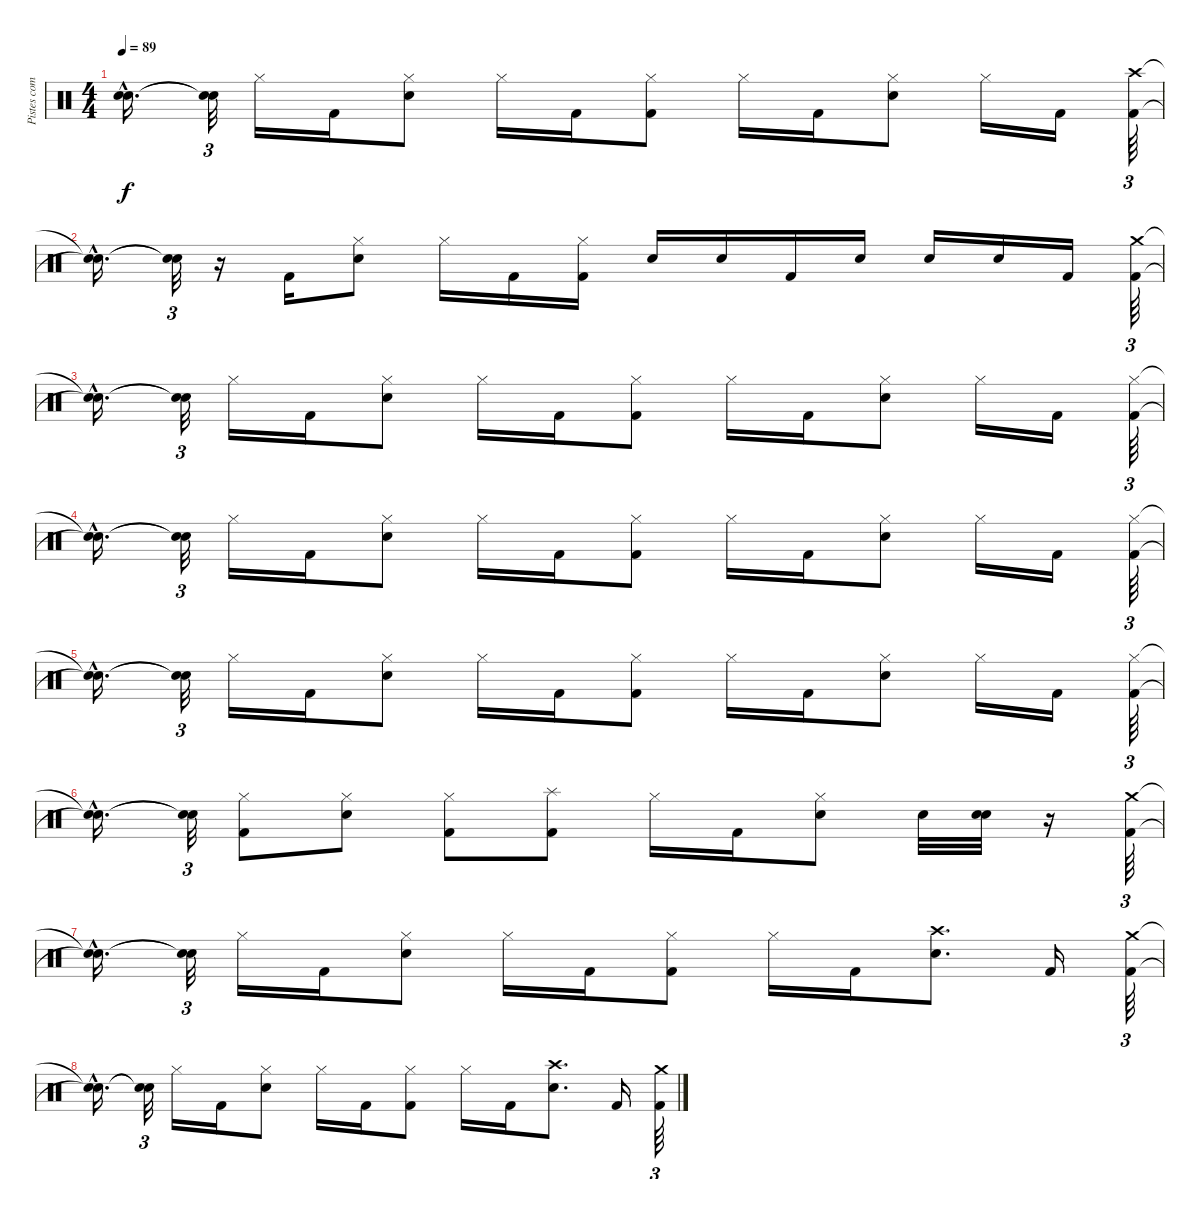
\track ("Pistes combinées" "Pistes com") {instrument percussion}
\staff {score}
\articulation defaults
\ts (4 4)
\tempo 89
\clef neutral
\ks c
("Snare (hit)"{hac t} "Snare (hit)"{hac t}).16{d dy f} ("Snare (hit)"{t} "Snare (hit)"{t}).32{tu (3 2)} "Hi-Hat (closed)".16 "Kick (hit) 2".16 ("Hi-Hat (closed)" "Electric Snare (hit)").8 "Hi-Hat (closed)".16 "Kick (hit) 2".16 ("Hi-Hat (closed)" "Kick (hit) 2").8 "Hi-Hat (closed)".16 "Kick (hit) 2".16 ("Hi-Hat (closed)" "Electric Snare (hit)").8 "Hi-Hat (closed)".16 "Kick (hit) 2".16 ("Crash high (hit)" "Kick (hit) 2").64{tu (3 2)} |
("Snare (hit)"{hac t} "Snare (hit)"{hac t}).16{d} ("Snare (hit)"{t} "Snare (hit)"{t}).32{tu (3 2)} r.16 "Kick (hit) 2".16 ("Hi-Hat (closed)" "Electric Snare (hit)").8 "Hi-Hat (closed)".16 "Kick (hit) 2".16 ("Hi-Hat (closed)" "Kick (hit) 2").16 "Electric Snare (hit)".16 "Electric Snare (hit)".16 "Kick (hit) 2".16 "Electric Snare (hit)".16 "Electric Snare (hit)".16 "Electric Snare (hit)".16 "Kick (hit) 2".16 ("Crash medium (hit)" "Kick (hit) 2").64{tu (3 2)} |
("Snare (hit)"{hac t} "Snare (hit)"{hac t}).16{d} ("Snare (hit)"{t} "Snare (hit)"{t}).32{tu (3 2)} "Hi-Hat (closed)".16 "Kick (hit) 2".16 ("Hi-Hat (closed)" "Electric Snare (hit)").8 "Hi-Hat (closed)".16 "Kick (hit) 2".16 ("Hi-Hat (closed)" "Kick (hit) 2").8 "Hi-Hat (closed)".16 "Kick (hit) 2".16 ("Hi-Hat (closed)" "Electric Snare (hit)").8 "Hi-Hat (closed)".16 "Kick (hit) 2".16 ("Hi-Hat (closed)" "Kick (hit) 2").64{tu (3 2)} |
("Snare (hit)"{hac t} "Snare (hit)"{hac t}).16{d} ("Snare (hit)"{t} "Snare (hit)"{t}).32{tu (3 2)} "Hi-Hat (closed)".16 "Kick (hit) 2".16 ("Hi-Hat (closed)" "Electric Snare (hit)").8 "Hi-Hat (closed)".16 "Kick (hit) 2".16 ("Hi-Hat (closed)" "Kick (hit) 2").8 "Hi-Hat (closed)".16 "Kick (hit) 2".16 ("Hi-Hat (closed)" "Electric Snare (hit)").8 "Hi-Hat (closed)".16 "Kick (hit) 2".16 ("Hi-Hat (closed)" "Kick (hit) 2").64{tu (3 2)} |
("Snare (hit)"{hac t} "Snare (hit)"{hac t}).16{d} ("Snare (hit)"{t} "Snare (hit)"{t}).32{tu (3 2)} "Hi-Hat (closed)".16 "Kick (hit) 2".16 ("Hi-Hat (closed)" "Electric Snare (hit)").8 "Hi-Hat (closed)".16 "Kick (hit) 2".16 ("Hi-Hat (closed)" "Kick (hit) 2").8 "Hi-Hat (closed)".16 "Kick (hit) 2".16 ("Hi-Hat (closed)" "Electric Snare (hit)").8 "Hi-Hat (closed)".16 "Kick (hit) 2".16 ("Hi-Hat (closed)" "Kick (hit) 2").64{tu (3 2)} |
("Snare (hit)"{hac t} "Snare (hit)"{hac t}).16{d} ("Snare (hit)"{t} "Snare (hit)"{t}).32{tu (3 2)} ("Hi-Hat (closed)" "Kick (hit) 2").8 ("Hi-Hat (closed)" "Electric Snare (hit)").8 ("Hi-Hat (closed)" "Kick (hit) 2").8 ("Splash (hit)" "Kick (hit) 2").8 "Hi-Hat (closed)".16 "Kick (hit) 2".16 ("Hi-Hat (closed)" "Electric Snare (hit)").8 "Electric Snare (hit)".32 ("Electric Snare (hit)" "Electric Snare (hit)").32 r.16 ("Crash medium (hit)" "Kick (hit) 2").64{tu (3 2)} |
("Snare (hit)"{hac t} "Snare (hit)"{hac t}).16{d} ("Snare (hit)"{t} "Snare (hit)"{t}).32{tu (3 2)} "Hi-Hat (closed)".16 "Kick (hit) 2".16 ("Hi-Hat (closed)" "Electric Snare (hit)").8 "Hi-Hat (closed)".16 "Kick (hit) 2".16 ("Hi-Hat (closed)" "Kick (hit) 2").8 "Hi-Hat (closed)".16 "Kick (hit) 2".16 ("Crash high (hit)" "Electric Snare (hit)").8{d} "Kick (hit) 2".16 ("Crash medium (hit)" "Kick (hit) 2").64{tu (3 2)} |
("Snare (hit)"{hac t} "Snare (hit)"{hac t}).16{d} ("Snare (hit)"{t} "Snare (hit)"{t}).32{tu (3 2)} "Hi-Hat (closed)".16 "Kick (hit) 2".16 ("Hi-Hat (closed)" "Electric Snare (hit)").8 "Hi-Hat (closed)".16 "Kick (hit) 2".16 ("Hi-Hat (closed)" "Kick (hit) 2").8 "Hi-Hat (closed)".16 "Kick (hit) 2".16 ("Crash high (hit)" "Electric Snare (hit)").8{d} "Kick (hit) 2".16 ("Crash medium (hit)" "Kick (hit) 2").64{tu (3 2)}
